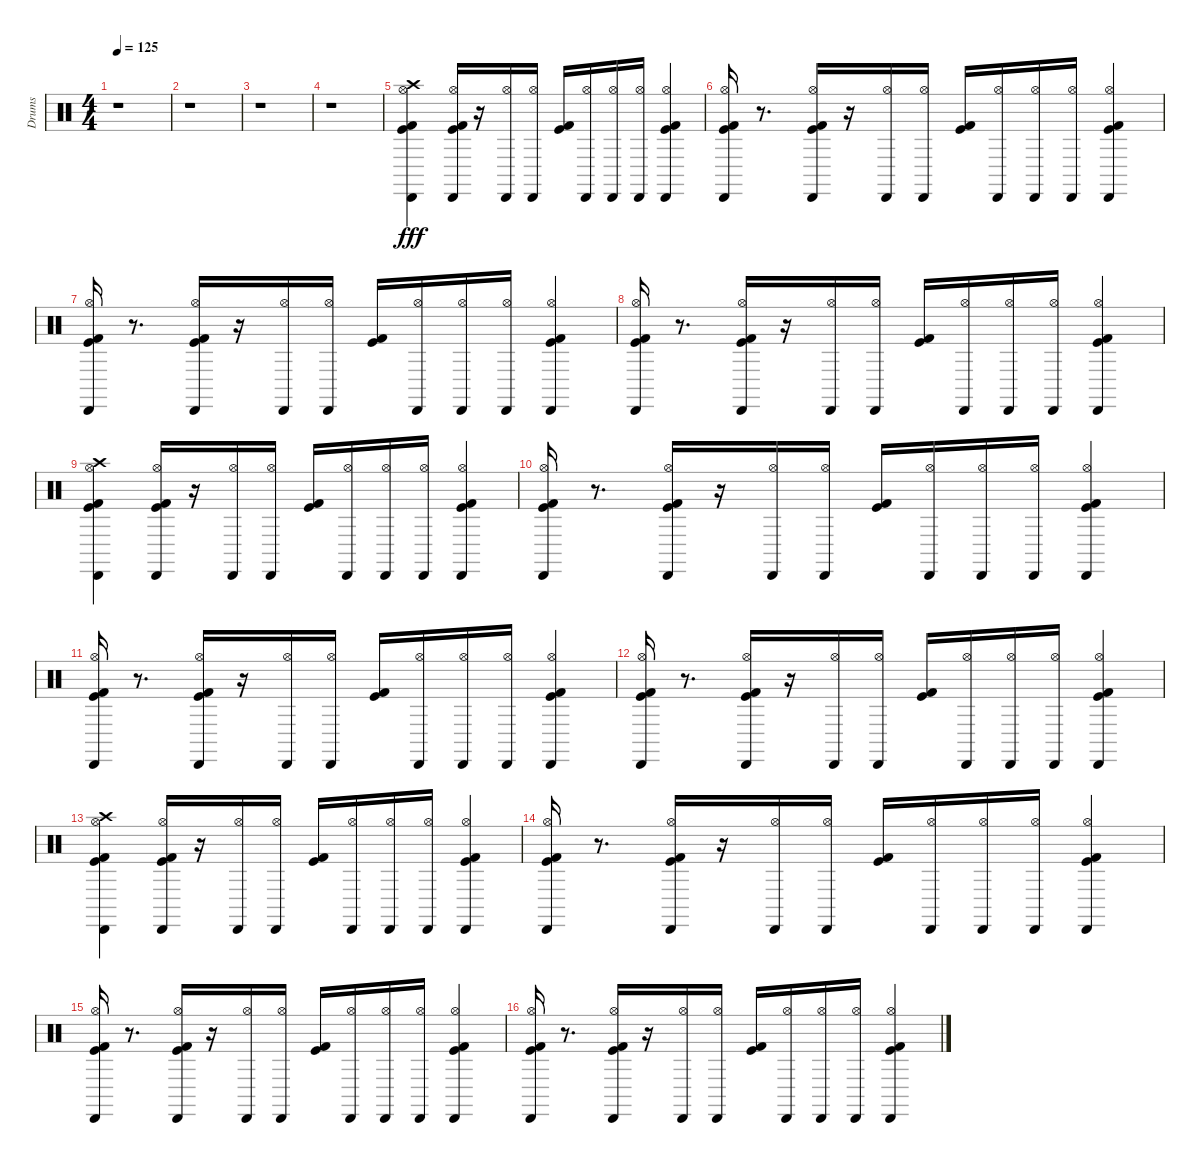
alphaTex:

\track ("Drums" "Drums") {instrument percussion}
\staff {score}
\articulation defaults
\ts (4 4)
\tempo 125
\clef neutral
\ks c
r.1{dy fff} |
r.1 |
r.1 |
r.1 |
("Crash high (hit)" "Cabasa (hit)" "Hi-Hat (open)" "Kick (hit)" "Kick (hit) 2").4 ("Kick (hit) 2" "Kick (hit)" "Hi-Hat (open)" "Cabasa (hit)").16 r.16 ("Hi-Hat (open)" "Cabasa (hit)").16 ("Hi-Hat (open)" "Cabasa (hit)").16 ("Kick (hit) 2" "Kick (hit)").16 ("Hi-Hat (open)" "Cabasa (hit)").16 ("Hi-Hat (open)" "Cabasa (hit)").16 ("Hi-Hat (open)" "Cabasa (hit)").16 ("Kick (hit) 2" "Kick (hit)" "Hi-Hat (open)" "Cabasa (hit)").4 |
("Kick (hit) 2" "Kick (hit)" "Hi-Hat (open)" "Cabasa (hit)").16 r.8{d} ("Kick (hit) 2" "Kick (hit)" "Hi-Hat (open)" "Cabasa (hit)").16 r.16 ("Hi-Hat (open)" "Cabasa (hit)").16 ("Hi-Hat (open)" "Cabasa (hit)").16 ("Kick (hit) 2" "Kick (hit)").16 ("Hi-Hat (open)" "Cabasa (hit)").16 ("Hi-Hat (open)" "Cabasa (hit)").16 ("Hi-Hat (open)" "Cabasa (hit)").16 ("Kick (hit) 2" "Kick (hit)" "Hi-Hat (open)" "Cabasa (hit)").4 |
("Kick (hit) 2" "Kick (hit)" "Hi-Hat (open)" "Cabasa (hit)").16 r.8{d} ("Kick (hit) 2" "Kick (hit)" "Hi-Hat (open)" "Cabasa (hit)").16 r.16 ("Hi-Hat (open)" "Cabasa (hit)").16 ("Hi-Hat (open)" "Cabasa (hit)").16 ("Kick (hit) 2" "Kick (hit)").16 ("Hi-Hat (open)" "Cabasa (hit)").16 ("Hi-Hat (open)" "Cabasa (hit)").16 ("Hi-Hat (open)" "Cabasa (hit)").16 ("Kick (hit) 2" "Kick (hit)" "Hi-Hat (open)" "Cabasa (hit)").4 |
("Kick (hit) 2" "Kick (hit)" "Hi-Hat (open)" "Cabasa (hit)").16 r.8{d} ("Kick (hit) 2" "Kick (hit)" "Hi-Hat (open)" "Cabasa (hit)").16 r.16 ("Hi-Hat (open)" "Cabasa (hit)").16 ("Hi-Hat (open)" "Cabasa (hit)").16 ("Kick (hit) 2" "Kick (hit)").16 ("Hi-Hat (open)" "Cabasa (hit)").16 ("Hi-Hat (open)" "Cabasa (hit)").16 ("Hi-Hat (open)" "Cabasa (hit)").16 ("Kick (hit) 2" "Kick (hit)" "Hi-Hat (open)" "Cabasa (hit)").4 |
("Crash high (hit)" "Cabasa (hit)" "Hi-Hat (open)" "Kick (hit)" "Kick (hit) 2").4 ("Kick (hit) 2" "Kick (hit)" "Hi-Hat (open)" "Cabasa (hit)").16 r.16 ("Hi-Hat (open)" "Cabasa (hit)").16 ("Hi-Hat (open)" "Cabasa (hit)").16 ("Kick (hit) 2" "Kick (hit)").16 ("Hi-Hat (open)" "Cabasa (hit)").16 ("Hi-Hat (open)" "Cabasa (hit)").16 ("Hi-Hat (open)" "Cabasa (hit)").16 ("Kick (hit) 2" "Kick (hit)" "Hi-Hat (open)" "Cabasa (hit)").4 |
("Kick (hit) 2" "Kick (hit)" "Hi-Hat (open)" "Cabasa (hit)").16 r.8{d} ("Kick (hit) 2" "Kick (hit)" "Hi-Hat (open)" "Cabasa (hit)").16 r.16 ("Hi-Hat (open)" "Cabasa (hit)").16 ("Hi-Hat (open)" "Cabasa (hit)").16 ("Kick (hit) 2" "Kick (hit)").16 ("Hi-Hat (open)" "Cabasa (hit)").16 ("Hi-Hat (open)" "Cabasa (hit)").16 ("Hi-Hat (open)" "Cabasa (hit)").16 ("Kick (hit) 2" "Kick (hit)" "Hi-Hat (open)" "Cabasa (hit)").4 |
("Kick (hit) 2" "Kick (hit)" "Hi-Hat (open)" "Cabasa (hit)").16 r.8{d} ("Kick (hit) 2" "Kick (hit)" "Hi-Hat (open)" "Cabasa (hit)").16 r.16 ("Hi-Hat (open)" "Cabasa (hit)").16 ("Hi-Hat (open)" "Cabasa (hit)").16 ("Kick (hit) 2" "Kick (hit)").16 ("Hi-Hat (open)" "Cabasa (hit)").16 ("Hi-Hat (open)" "Cabasa (hit)").16 ("Hi-Hat (open)" "Cabasa (hit)").16 ("Kick (hit) 2" "Kick (hit)" "Hi-Hat (open)" "Cabasa (hit)").4 |
("Kick (hit) 2" "Kick (hit)" "Hi-Hat (open)" "Cabasa (hit)").16 r.8{d} ("Kick (hit) 2" "Kick (hit)" "Hi-Hat (open)" "Cabasa (hit)").16 r.16 ("Hi-Hat (open)" "Cabasa (hit)").16 ("Hi-Hat (open)" "Cabasa (hit)").16 ("Kick (hit) 2" "Kick (hit)").16 ("Hi-Hat (open)" "Cabasa (hit)").16 ("Hi-Hat (open)" "Cabasa (hit)").16 ("Hi-Hat (open)" "Cabasa (hit)").16 ("Kick (hit) 2" "Kick (hit)" "Hi-Hat (open)" "Cabasa (hit)").4 |
("Crash high (hit)" "Cabasa (hit)" "Hi-Hat (open)" "Kick (hit)" "Kick (hit) 2").4 ("Kick (hit) 2" "Kick (hit)" "Hi-Hat (open)" "Cabasa (hit)").16 r.16 ("Hi-Hat (open)" "Cabasa (hit)").16 ("Hi-Hat (open)" "Cabasa (hit)").16 ("Kick (hit) 2" "Kick (hit)").16 ("Hi-Hat (open)" "Cabasa (hit)").16 ("Hi-Hat (open)" "Cabasa (hit)").16 ("Hi-Hat (open)" "Cabasa (hit)").16 ("Kick (hit) 2" "Kick (hit)" "Hi-Hat (open)" "Cabasa (hit)").4 |
("Kick (hit) 2" "Kick (hit)" "Hi-Hat (open)" "Cabasa (hit)").16 r.8{d} ("Kick (hit) 2" "Kick (hit)" "Hi-Hat (open)" "Cabasa (hit)").16 r.16 ("Hi-Hat (open)" "Cabasa (hit)").16 ("Hi-Hat (open)" "Cabasa (hit)").16 ("Kick (hit) 2" "Kick (hit)").16 ("Hi-Hat (open)" "Cabasa (hit)").16 ("Hi-Hat (open)" "Cabasa (hit)").16 ("Hi-Hat (open)" "Cabasa (hit)").16 ("Kick (hit) 2" "Kick (hit)" "Hi-Hat (open)" "Cabasa (hit)").4 |
("Kick (hit) 2" "Kick (hit)" "Hi-Hat (open)" "Cabasa (hit)").16 r.8{d} ("Kick (hit) 2" "Kick (hit)" "Hi-Hat (open)" "Cabasa (hit)").16 r.16 ("Hi-Hat (open)" "Cabasa (hit)").16 ("Hi-Hat (open)" "Cabasa (hit)").16 ("Kick (hit) 2" "Kick (hit)").16 ("Hi-Hat (open)" "Cabasa (hit)").16 ("Hi-Hat (open)" "Cabasa (hit)").16 ("Hi-Hat (open)" "Cabasa (hit)").16 ("Kick (hit) 2" "Kick (hit)" "Hi-Hat (open)" "Cabasa (hit)").4 |
("Kick (hit) 2" "Kick (hit)" "Hi-Hat (open)" "Cabasa (hit)").16 r.8{d} ("Kick (hit) 2" "Kick (hit)" "Hi-Hat (open)" "Cabasa (hit)").16 r.16 ("Hi-Hat (open)" "Cabasa (hit)").16 ("Hi-Hat (open)" "Cabasa (hit)").16 ("Kick (hit) 2" "Kick (hit)").16 ("Hi-Hat (open)" "Cabasa (hit)").16 ("Hi-Hat (open)" "Cabasa (hit)").16 ("Hi-Hat (open)" "Cabasa (hit)").16 ("Kick (hit) 2" "Kick (hit)" "Hi-Hat (open)" "Cabasa (hit)").4
